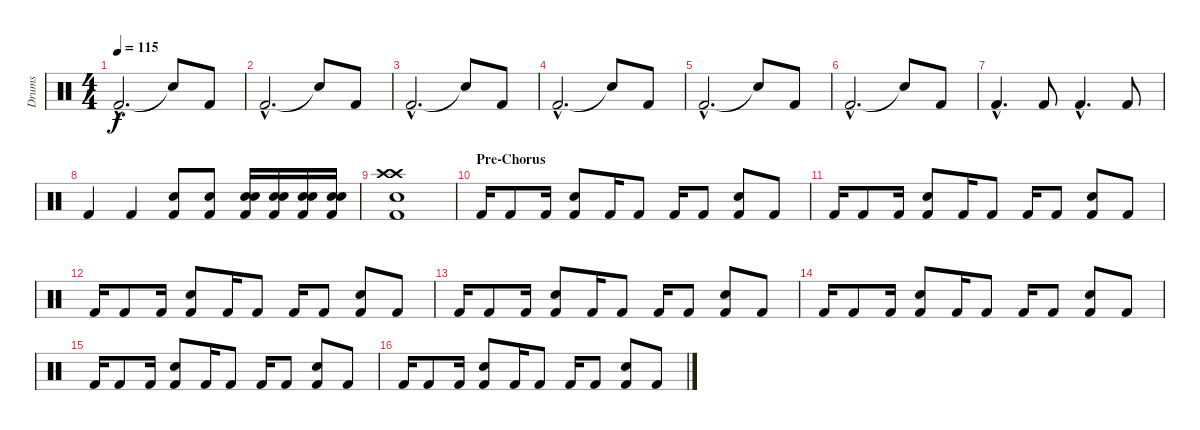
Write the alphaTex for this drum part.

\track ("Drums" "Drums") {instrument percussion}
\staff {score}
\articulation defaults
\ts (4 4)
\tempo 115
\clef neutral
\ks c "Kick (hit) 2"{hac}.2{d dy f} "Snare (hit)"{t}.8 "Kick (hit) 2".8
|
"Kick (hit) 2"{hac}.2{d} "Snare (hit)"{t}.8 "Kick (hit) 2".8 |
"Kick (hit) 2"{hac}.2{d} "Snare (hit)"{t}.8 "Kick (hit) 2".8 |
"Kick (hit) 2"{hac}.2{d} "Snare (hit)"{t}.8 "Kick (hit) 2".8 |
"Kick (hit) 2"{hac}.2{d} "Snare (hit)"{t}.8 "Kick (hit) 2".8 |
"Kick (hit) 2"{hac}.2{d} "Snare (hit)"{t}.8 "Kick (hit) 2".8 |
"Kick (hit) 2"{hac}.4{d} "Kick (hit) 2".8 "Kick (hit) 2"{hac}.4{d} "Kick (hit) 2".8 |
"Kick (hit) 2".4 "Kick (hit) 2".4 ("Snare (hit) 2" "Kick (hit) 2").8 ("Snare (hit) 2" "Kick (hit) 2").8 ("Snare (hit) 2" "Snare (hit) 2" "Kick (hit) 2").16 ("Snare (hit) 2" "Snare (hit) 2" "Kick (hit) 2").16 ("Snare (hit) 2" "Snare (hit) 2" "Kick (hit) 2").16 ("Snare (hit) 2" "Snare (hit) 2" "Kick (hit) 2").16 |
("Crash high (hit)" "Crash high (hit)" "Snare (hit) 2" "Kick (hit) 2").1 |
\section ("" "Pre-Chorus")
"Kick (hit) 2".16 "Kick (hit) 2".8 "Kick (hit) 2".16 ("Snare (hit) 2" "Kick (hit) 2").8 "Kick (hit) 2".16 "Kick (hit) 2".8 "Kick (hit) 2".16 "Kick (hit) 2".8 ("Snare (hit) 2" "Kick (hit) 2").8 "Kick (hit) 2".8 |
"Kick (hit) 2".16 "Kick (hit) 2".8 "Kick (hit) 2".16 ("Snare (hit) 2" "Kick (hit) 2").8 "Kick (hit) 2".16 "Kick (hit) 2".8 "Kick (hit) 2".16 "Kick (hit) 2".8 ("Snare (hit) 2" "Kick (hit) 2").8 "Kick (hit) 2".8 |
"Kick (hit) 2".16 "Kick (hit) 2".8 "Kick (hit) 2".16 ("Snare (hit) 2" "Kick (hit) 2").8 "Kick (hit) 2".16 "Kick (hit) 2".8 "Kick (hit) 2".16 "Kick (hit) 2".8 ("Snare (hit) 2" "Kick (hit) 2").8 "Kick (hit) 2".8 |
"Kick (hit) 2".16 "Kick (hit) 2".8 "Kick (hit) 2".16 ("Snare (hit) 2" "Kick (hit) 2").8 "Kick (hit) 2".16 "Kick (hit) 2".8 "Kick (hit) 2".16 "Kick (hit) 2".8 ("Snare (hit) 2" "Kick (hit) 2").8 "Kick (hit) 2".8 |
"Kick (hit) 2".16 "Kick (hit) 2".8 "Kick (hit) 2".16 ("Snare (hit) 2" "Kick (hit) 2").8 "Kick (hit) 2".16 "Kick (hit) 2".8 "Kick (hit) 2".16 "Kick (hit) 2".8 ("Snare (hit) 2" "Kick (hit) 2").8 "Kick (hit) 2".8 |
"Kick (hit) 2".16 "Kick (hit) 2".8 "Kick (hit) 2".16 ("Snare (hit) 2" "Kick (hit) 2").8 "Kick (hit) 2".16 "Kick (hit) 2".8 "Kick (hit) 2".16 "Kick (hit) 2".8 ("Snare (hit) 2" "Kick (hit) 2").8 "Kick (hit) 2".8 |
"Kick (hit) 2".16 "Kick (hit) 2".8 "Kick (hit) 2".16 ("Snare (hit) 2" "Kick (hit) 2").8 "Kick (hit) 2".16 "Kick (hit) 2".8 "Kick (hit) 2".16 "Kick (hit) 2".8 ("Snare (hit) 2" "Kick (hit) 2").8 "Kick (hit) 2".8
